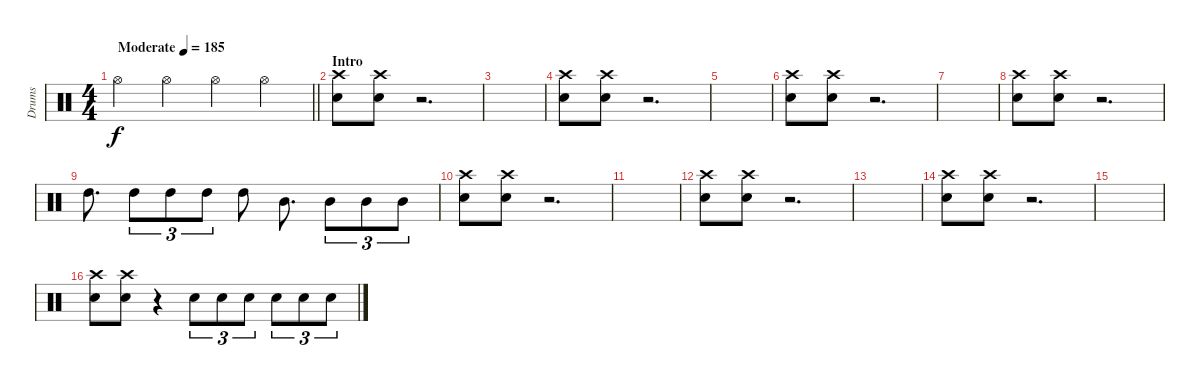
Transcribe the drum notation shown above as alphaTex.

\track ("Drums" "Drums") {instrument percussion}
\staff {score}
\articulation defaults
\ts (4 4)
\tempo (185 "Moderate")
\clef neutral
\barLineRight lightlight
\ks c "Hi-Hat (open)".4{dy f} "Hi-Hat (open)".4 "Hi-Hat (open)".4 "Hi-Hat (open)".4
|
\section ("" "Intro")
("Snare (hit) 2" "Crash high (hit)").8 ("Snare (hit) 2" "Crash high (hit)").8 r.2{d} |
|
("Snare (hit) 2" "Crash high (hit)").8 ("Snare (hit) 2" "Crash high (hit)").8 r.2{d} |
|
("Snare (hit) 2" "Crash high (hit)").8 ("Snare (hit) 2" "Crash high (hit)").8 r.2{d} |
|
("Snare (hit) 2" "Crash high (hit)").8 ("Snare (hit) 2" "Crash high (hit)").8 r.2{d} |
"High Tom (hit)".8{d} "High Tom (hit)".8{tu (3 2)} "High Tom (hit)".8{tu (3 2)} "High Tom (hit)".8{tu (3 2)} "High Tom (hit)".8 "Mid Tom (hit)".8{d} "Mid Tom (hit)".8{tu (3 2)} "Mid Tom (hit)".8{tu (3 2)} "Mid Tom (hit)".8{tu (3 2)} |
("Snare (hit) 2" "Crash high (hit)").8 ("Snare (hit) 2" "Crash high (hit)").8 r.2{d} |
|
("Snare (hit) 2" "Crash high (hit)").8 ("Snare (hit) 2" "Crash high (hit)").8 r.2{d} |
|
("Snare (hit) 2" "Crash high (hit)").8 ("Snare (hit) 2" "Crash high (hit)").8 r.2{d} |
|
("Snare (hit) 2" "Crash high (hit)").8 ("Snare (hit) 2" "Crash high (hit)").8 r.4 "Snare (hit) 2".8{tu (3 2)} "Snare (hit) 2".8{tu (3 2)} "Snare (hit) 2".8{tu (3 2)} "Snare (hit) 2".8{tu (3 2)} "Snare (hit) 2".8{tu (3 2)} "Snare (hit) 2".8{tu (3 2)}
